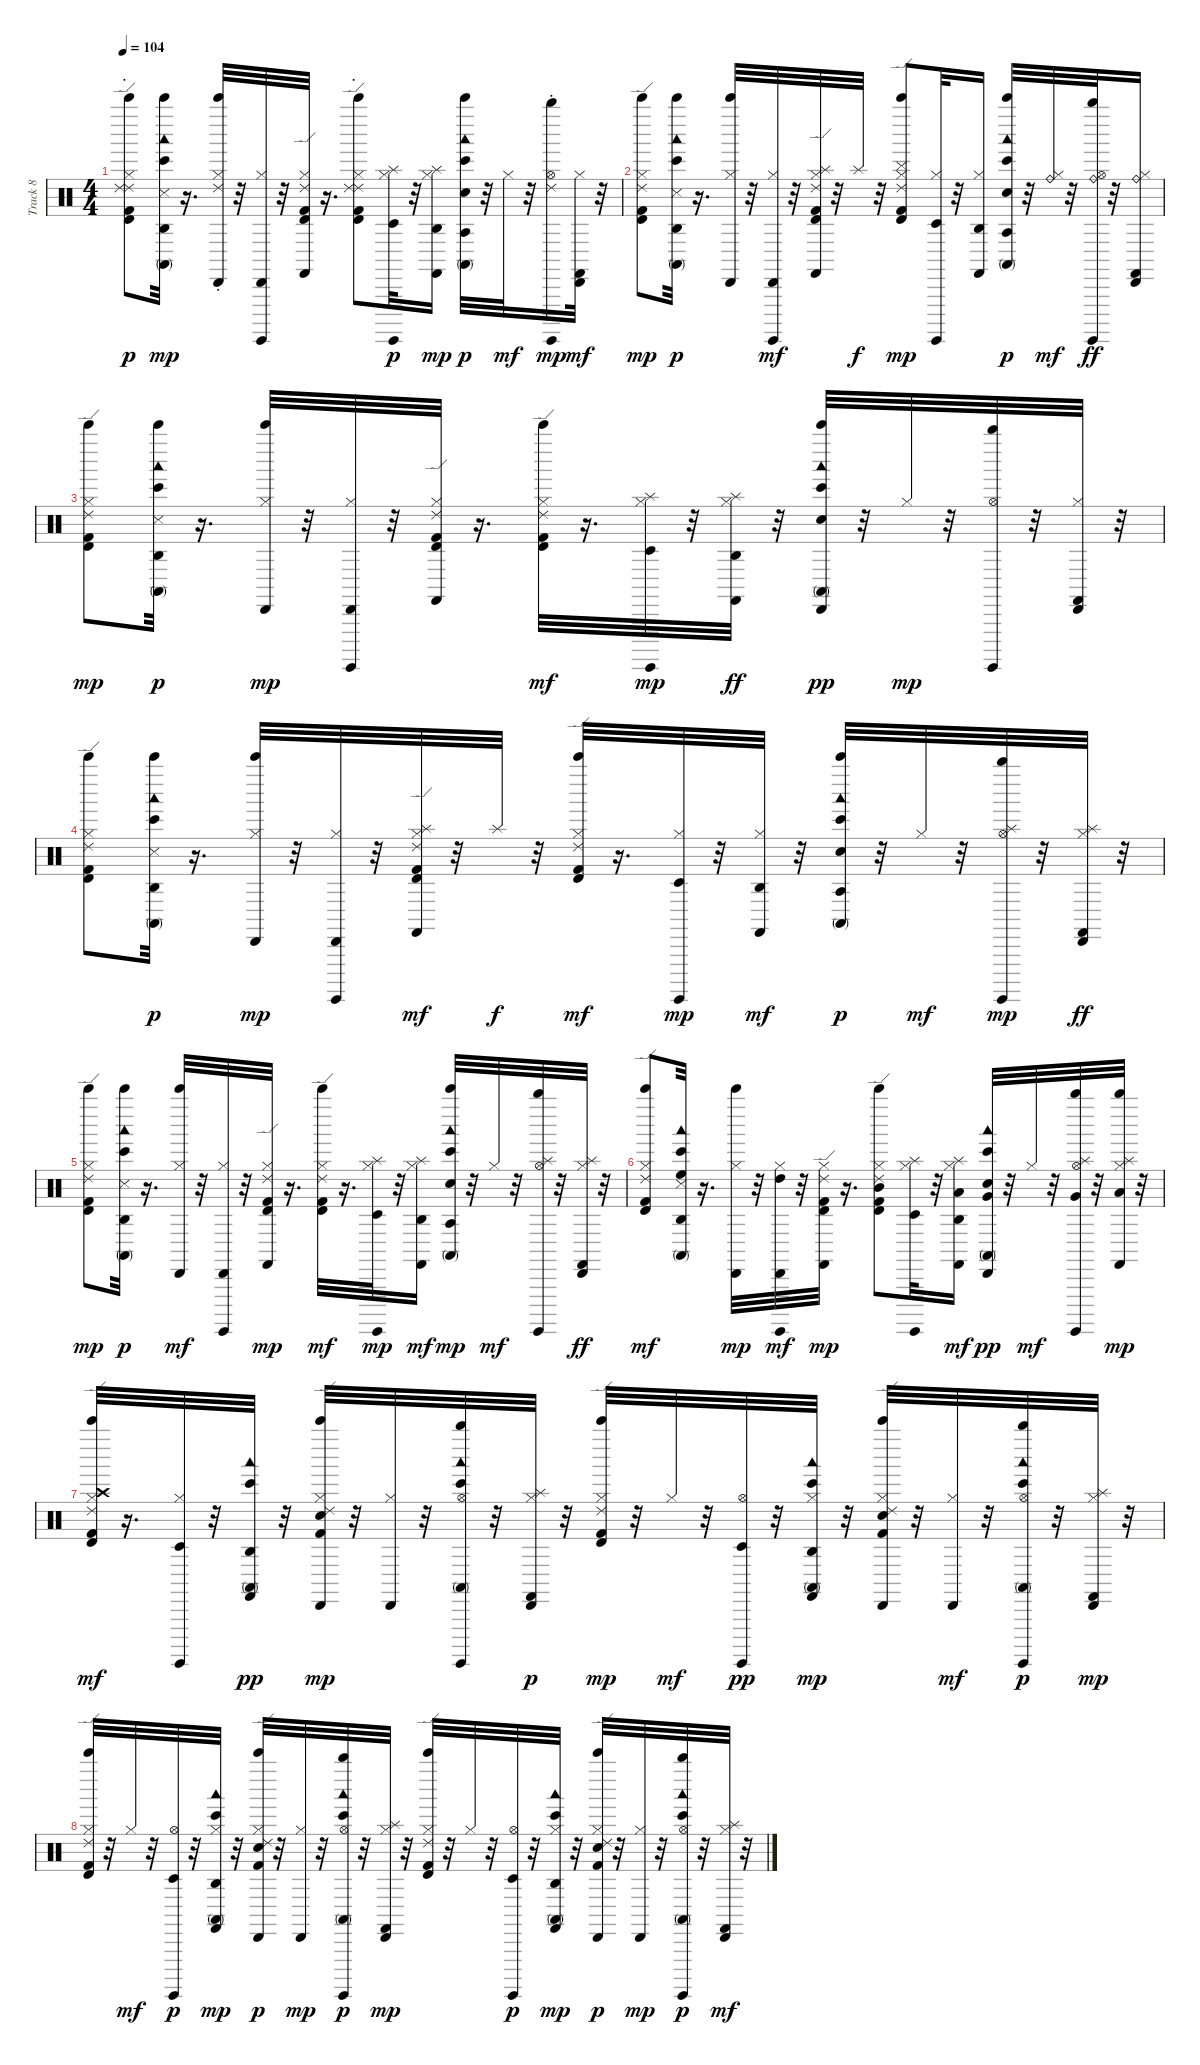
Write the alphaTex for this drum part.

\track ("Track 8" "Track 8") {instrument percussion}
\staff {score}
\articulation defaults
\ts (4 4)
\tempo 104
\clef neutral
\ks c
("Timbale high (hit)" "Ride (edge) 2" "Kick (hit) 2" "Bell Tree (hit)" "Hi-Hat (closed)" "Ride (choke) 2").8{dy p} ("Agogo high (hit)" "Bongo High (hit)" "Conga high (mute)" "Snare (side stick) 3" "Woodblock low (hit)" "Bell Tree (hit)").32{dy mp} r.16{d} ("Cabasa (hit)" "Bell Tree (hit)" "Hi-Hat (closed)" "Ride (choke) 2").32 r.32 ("Cabasa (hit)" "Surdo (hit)" "Hi-Hat (closed)").32 r.32 ("Timbale high (hit)" "Ride (edge) 2" "Kick (hit) 2" "Castanets (hit)" "Hi-Hat (closed)").32 r.16{d} ("Timbale high (hit)" "Ride (edge) 2" "Kick (hit) 2" "Bell Tree (hit)" "Hi-Hat (closed)" "Ride (choke) 2").8 ("Timbale low (hit)" "Surdo (hit)" "Hi-Hat (closed)" "Splash (hit)").32{dy p} r.32 ("Agogo high (hit)" "Castanets (hit)" "Hi-Hat (closed)" "Splash (hit)").16{dy mp} ("Agogo tow (hit)" "Bongo High (hit)" "Conga high (mute)" "Electric Snare (hit)" "Woodblock low (hit)" "Bell Tree (hit)").32{dy p} r.32 "Hi-Hat (closed)".32{dy mf} r.32 ("Whistle high (hit)" "Surdo (hit)" "Hi-Hat (open)" "Ride (choke) 2").16{dy mp} ("Cabasa (hit)" "Castanets (hit)" "Hi-Hat (closed)").32{dy mf} r.32 |
("Timbale high (hit)" "Ride (edge) 2" "Kick (hit) 2" "Bell Tree (hit)" "Hi-Hat (closed)").8{dy mp} ("Agogo high (hit)" "Bongo High (hit)" "Conga high (mute)" "Snare (side stick) 3" "Woodblock low (hit)" "Bell Tree (hit)").32{dy p} r.16{d} ("Cabasa (hit)" "Bell Tree (hit)" "Hi-Hat (closed)").32 r.32 ("Cabasa (hit)" "Surdo (hit)" "Hi-Hat (closed)").32{dy mf} r.32 ("Timbale high (hit)" "Ride (edge) 2" "Kick (hit) 2" "Castanets (hit)" "Splash (hit)" "Hi-Hat (closed)").32 r.32 "Splash (hit)".32{dy f} r.32 ("Timbale high (hit)" "Ride (edge) 2" "Kick (hit) 2" "Bell Tree (hit)" "Hi-Hat (closed)" "Cymbal (hit)").8{dy mp} ("Timbale low (hit)" "Surdo (hit)" "Hi-Hat (closed)").32 r.32 ("Agogo high (hit)" "Castanets (hit)" "Hi-Hat (closed)").16 ("Agogo tow (hit)" "Bongo High (hit)" "Conga high (mute)" "Electric Snare (hit)" "Woodblock low (hit)" "Bell Tree (hit)").32{dy p} r.32 ("Hi-Hat (closed)" "Ride (bell)").32{dy mf} r.32 ("Whistle high (hit)" "Surdo (hit)" "Hi-Hat (open)" "Ride (bell)").32{dy ff} r.32 ("Cabasa (hit)" "Castanets (hit)" "Hi-Hat (closed)" "Ride (bell)").16 |
("Timbale high (hit)" "Ride (edge) 2" "Kick (hit) 2" "Bell Tree (hit)" "Hi-Hat (closed)").8{dy mp} ("Agogo high (hit)" "Bongo High (hit)" "Conga high (mute)" "Snare (side stick) 3" "Woodblock low (hit)" "Bell Tree (hit)").32{dy p} r.16{d} ("Cabasa (hit)" "Bell Tree (hit)" "Hi-Hat (closed)").32{dy mp} r.32 ("Cabasa (hit)" "Surdo (hit)" "Hi-Hat (closed)").32 r.32 ("Timbale high (hit)" "Ride (edge) 2" "Kick (hit) 2" "Castanets (hit)" "Hi-Hat (closed)").32 r.16{d} ("Timbale high (hit)" "Ride (edge) 2" "Kick (hit) 2" "Bell Tree (hit)" "Hi-Hat (closed)").32{dy mf} r.16{d} ("Timbale low (hit)" "Surdo (hit)" "Hi-Hat (closed)" "Splash (hit)").32{dy mp} r.32 ("Agogo high (hit)" "Castanets (hit)" "Hi-Hat (closed)" "Splash (hit)").32{dy ff} r.32 ("Cabasa (hit)" "Bongo High (hit)" "Conga high (mute)" "Electric Snare (hit)" "Woodblock low (hit)" "Bell Tree (hit)").32{dy pp} r.32 "Hi-Hat (closed)".32{dy mp} r.32 ("Whistle high (hit)" "Surdo (hit)" "Hi-Hat (open)").32 r.32 ("Cabasa (hit)" "Castanets (hit)" "Hi-Hat (closed)").32 r.32 |
("Timbale high (hit)" "Ride (edge) 2" "Kick (hit) 2" "Bell Tree (hit)" "Hi-Hat (closed)").8 ("Agogo high (hit)" "Bongo High (hit)" "Conga high (mute)" "Snare (side stick) 3" "Woodblock low (hit)" "Bell Tree (hit)").32{dy p} r.16{d} ("Cabasa (hit)" "Bell Tree (hit)" "Hi-Hat (closed)").32{dy mp} r.32 ("Cabasa (hit)" "Surdo (hit)" "Hi-Hat (closed)").32 r.32 ("Timbale high (hit)" "Ride (edge) 2" "Kick (hit) 2" "Castanets (hit)" "Splash (hit)" "Hi-Hat (closed)").32{dy mf} r.32 "Splash (hit)".32{dy f} r.32 ("Timbale high (hit)" "Ride (edge) 2" "Kick (hit) 2" "Bell Tree (hit)" "Hi-Hat (closed)").32{dy mf} r.16{d} ("Timbale low (hit)" "Surdo (hit)" "Hi-Hat (closed)").32{dy mp} r.32 ("Agogo high (hit)" "Castanets (hit)" "Hi-Hat (closed)").32{dy mf} r.32 ("Agogo tow (hit)" "Bongo High (hit)" "Conga high (mute)" "Electric Snare (hit)" "Woodblock low (hit)" "Bell Tree (hit)").32{dy p} r.32 "Hi-Hat (closed)".32{dy mf} r.32 ("Whistle high (hit)" "Surdo (hit)" "Hi-Hat (open)" "Splash (hit)").32{dy mp} r.32 ("Cabasa (hit)" "Castanets (hit)" "Hi-Hat (closed)" "Splash (hit)").32{dy ff} r.32 |
("Timbale high (hit)" "Ride (edge) 2" "Kick (hit) 2" "Bell Tree (hit)" "Hi-Hat (closed)").8{dy mp} ("Agogo high (hit)" "Conga high (mute)" "Bongo High (hit)" "Snare (side stick) 3" "Woodblock low (hit)" "Bell Tree (hit)").32{dy p} r.16{d} ("Cabasa (hit)" "Bell Tree (hit)" "Hi-Hat (closed)").32{dy mf} r.32 ("Cabasa (hit)" "Surdo (hit)" "Hi-Hat (closed)").32 r.32 ("Timbale high (hit)" "Ride (edge) 2" "Kick (hit) 2" "Castanets (hit)" "Hi-Hat (closed)").32{dy mp} r.16{d} ("Timbale high (hit)" "Ride (edge) 2" "Kick (hit) 2" "Bell Tree (hit)" "Hi-Hat (closed)").32{dy mf} r.16{d} ("Timbale low (hit)" "Surdo (hit)" "Hi-Hat (closed)" "Splash (hit)").32{dy mp} r.32 ("Agogo high (hit)" "Castanets (hit)" "Hi-Hat (closed)" "Splash (hit)").16{dy mf} ("Agogo tow (hit)" "Bongo High (hit)" "Conga high (mute)" "Electric Snare (hit)" "Woodblock low (hit)" "Bell Tree (hit)").32{dy mp} r.32 "Hi-Hat (closed)".32{dy mf} r.32 ("Whistle high (hit)" "Surdo (hit)" "Hi-Hat (open)" "Splash (hit)").32 r.32 ("Cabasa (hit)" "Castanets (hit)" "Hi-Hat (closed)" "Splash (hit)").32{dy ff} r.32 |
("Timbale high (hit)" "Ride (edge) 2" "Kick (hit) 2" "Bell Tree (hit)" "Hi-Hat (closed)").8{dy mf} ("Agogo high (hit)" "Bongo High (hit)" "Conga high (mute)" "Snare (side stick) 3" "Woodblock low (hit)" "High Floor Tom (hit)").32 r.16{d} ("Cabasa (hit)" "Bell Tree (hit)" "Hi-Hat (closed)").32{dy mp} r.32 ("Cabasa (hit)" "High Tom (hit)" "Surdo (hit)" "Hi-Hat (closed)").32{dy mf} r.32 ("Timbale high (hit)" "Ride (edge) 2" "Kick (hit) 2" "Castanets (hit)" "Hi-Hat (closed)").32{dy mp} r.16{d} ("Timbale high (hit)" "Ride (edge) 2" "Kick (hit) 2" "Mid Tom (hit)" "Bell Tree (hit)" "Hi-Hat (closed)").8 ("Timbale low (hit)" "Surdo (hit)" "Hi-Hat (closed)" "Splash (hit)").32 r.32 ("Agogo high (hit)" "Low Tom (hit)" "Castanets (hit)" "Hi-Hat (closed)" "Splash (hit)").16{dy mf} ("Cabasa (hit)" "Bongo High (hit)" "Conga high (mute)" "Electric Snare (hit)" "Woodblock low (hit)" "Very Low Tom (hit)").32{dy pp} r.32 "Hi-Hat (closed)".32{dy mf} r.32 ("Whistle high (hit)" "Very Low Tom (hit)" "Surdo (hit)" "Hi-Hat (open)" "Splash (hit)").32 r.32 ("Whistle high (hit)" "Low Floor Tom (hit)" "Castanets (hit)" "Hi-Hat (closed)" "Splash (hit)").32{dy mp} r.32 |
("Timbale high (hit)" "Ride (edge) 2" "Kick (hit) 2" "Crash high (hit)" "Bell Tree (hit)" "Hi-Hat (closed)").32{dy mf} r.16{d} ("Timbale low (hit)" "Surdo (hit)" "Hi-Hat (closed)").32 r.32 ("Agogo high (hit)" "Bongo High (hit)" "Conga high (mute)" "Woodblock low (hit)" "Castanets (hit)").32{dy pp} r.32 ("Cabasa (hit)" "Ride (edge) 2" "Kick (hit) 2" "Electric Snare (hit)" "Bell Tree (hit)" "Hi-Hat (closed)").32{dy mp} r.32 ("Cabasa (hit)" "Hi-Hat (closed)").32 r.32 ("Whistle high (hit)" "Bongo High (hit)" "Conga high (mute)" "Woodblock low (hit)" "Surdo (hit)" "Hi-Hat (open)").32 r.32 ("Cabasa (hit)" "Castanets (hit)" "Hi-Hat (closed)" "Splash (hit)").32{dy p} r.32 ("Timbale high (hit)" "Ride (edge) 2" "Kick (hit) 2" "Bell Tree (hit)" "Hi-Hat (closed)").32{dy mp} r.32 "Hi-Hat (closed)".32{dy mf} r.32 ("Timbale low (hit)" "Surdo (hit)" "Hi-Hat (open)").32{dy pp} r.32 ("Agogo high (hit)" "Bongo High (hit)" "Conga high (mute)" "Woodblock low (hit)" "Castanets (hit)" "Hi-Hat (closed)").32{dy mp} r.32 ("Cabasa (hit)" "Ride (edge) 2" "Kick (hit) 2" "Electric Snare (hit)" "Bell Tree (hit)" "Hi-Hat (closed)").32 r.32 ("Cabasa (hit)" "Hi-Hat (closed)").32{dy mf} r.32 ("Whistle high (hit)" "Conga high (mute)" "Bongo High (hit)" "Woodblock low (hit)" "Surdo (hit)" "Hi-Hat (open)").32{dy p} r.32 ("Cabasa (hit)" "Castanets (hit)" "Hi-Hat (closed)" "Splash (hit)").32{dy mp} r.32 |
("Timbale high (hit)" "Ride (edge) 2" "Kick (hit) 2" "Bell Tree (hit)" "Hi-Hat (closed)").32 r.32 "Hi-Hat (closed)".32{dy mf} r.32 ("Timbale low (hit)" "Surdo (hit)" "Hi-Hat (open)").32{dy p} r.32 ("Agogo high (hit)" "Bongo High (hit)" "Conga high (mute)" "Woodblock low (hit)" "Castanets (hit)" "Hi-Hat (closed)").32{dy mp} r.32 ("Cabasa (hit)" "Ride (edge) 2" "Kick (hit) 2" "Electric Snare (hit)" "Bell Tree (hit)" "Hi-Hat (closed)").32{dy p} r.32 ("Cabasa (hit)" "Hi-Hat (closed)").32{dy mp} r.32 ("Whistle high (hit)" "Bongo High (hit)" "Conga high (mute)" "Woodblock low (hit)" "Surdo (hit)" "Hi-Hat (open)").32{dy p} r.32 ("Cabasa (hit)" "Castanets (hit)" "Hi-Hat (closed)" "Splash (hit)").32{dy mp} r.32 ("Timbale high (hit)" "Ride (edge) 2" "Kick (hit) 2" "Bell Tree (hit)" "Hi-Hat (closed)").32 r.32 "Hi-Hat (closed)".32 r.32 ("Timbale low (hit)" "Surdo (hit)" "Hi-Hat (open)").32{dy p} r.32 ("Agogo high (hit)" "Bongo High (hit)" "Conga high (mute)" "Woodblock low (hit)" "Castanets (hit)" "Hi-Hat (closed)").32{dy mp} r.32 ("Cabasa (hit)" "Ride (edge) 2" "Kick (hit) 2" "Electric Snare (hit)" "Bell Tree (hit)" "Hi-Hat (closed)").32{dy p} r.32 ("Cabasa (hit)" "Hi-Hat (closed)").32{dy mp} r.32 ("Whistle high (hit)" "Bongo High (hit)" "Conga high (mute)" "Woodblock low (hit)" "Surdo (hit)" "Hi-Hat (open)").32{dy p} r.32 ("Cabasa (hit)" "Castanets (hit)" "Hi-Hat (closed)" "Splash (hit)").32{dy mf} r.32
